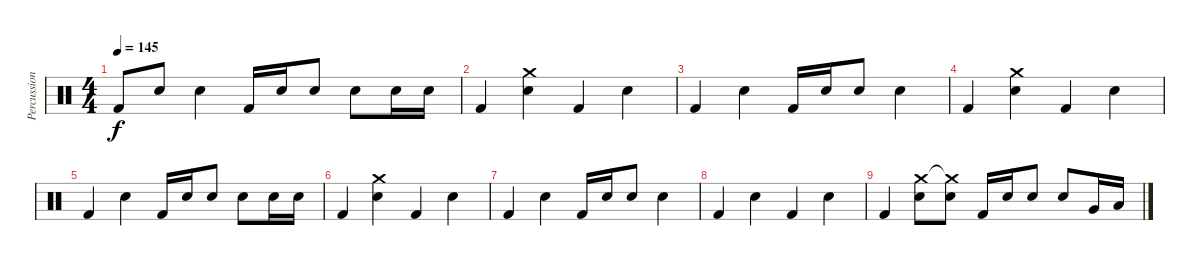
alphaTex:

\track ("Percussion" "Percussion") {instrument percussion}
\staff {score}
\articulation defaults
\ts (4 4)
\tempo 145
\clef neutral
\ks c "Kick (hit) 2".8{dy f} "Electric Snare (hit)".8 "Electric Snare (hit)".4 "Kick (hit) 2".16 "Electric Snare (hit)".16 "Electric Snare (hit)".8 "Electric Snare (hit)".8 "Electric Snare (hit)".16 "Electric Snare (hit)".16
|
"Kick (hit) 2".4 ("Crash medium (hit)" "Electric Snare (hit)").4 "Kick (hit) 2".4 "Electric Snare (hit)".4 |
"Kick (hit) 2".4 "Electric Snare (hit)".4 "Kick (hit) 2".16 "Electric Snare (hit)".16 "Electric Snare (hit)".8 "Electric Snare (hit)".4 |
"Kick (hit) 2".4 ("Crash medium (hit)" "Electric Snare (hit)").4 "Kick (hit) 2".4 "Electric Snare (hit)".4 |
"Kick (hit) 2".4 "Electric Snare (hit)".4 "Kick (hit) 2".16 "Electric Snare (hit)".16 "Electric Snare (hit)".8 "Electric Snare (hit)".8 "Electric Snare (hit)".16 "Electric Snare (hit)".16 |
"Kick (hit) 2".4 ("Crash medium (hit)" "Electric Snare (hit)").4 "Kick (hit) 2".4 "Electric Snare (hit)".4 |
"Kick (hit) 2".4 "Electric Snare (hit)".4 "Kick (hit) 2".16 "Electric Snare (hit)".16 "Electric Snare (hit)".8 "Electric Snare (hit)".4 |
"Kick (hit) 2".4 "Electric Snare (hit)".4 "Kick (hit) 2".4 "Electric Snare (hit)".4 |
"Kick (hit) 2".4 ("Crash medium (hit)" "Electric Snare (hit)").8 ("Crash medium (hit)"{t} "Electric Snare (hit)").8 "Kick (hit) 2".16 "Electric Snare (hit)".16 "Electric Snare (hit)".8 "Electric Snare (hit)".8 "Very Low Tom (hit)".16 "Low Floor Tom (hit)".16
